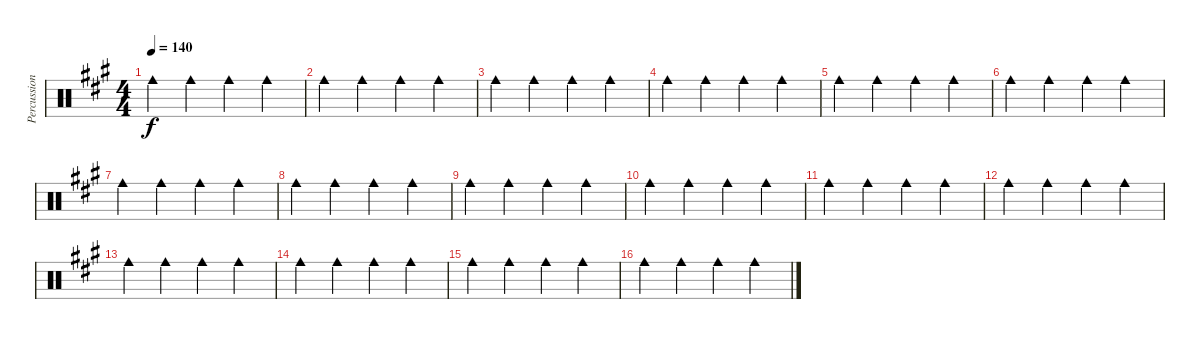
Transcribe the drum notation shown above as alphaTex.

\track ("Percussion" "Percussion") {instrument percussion}
\staff {score}
\articulation defaults
\ts (4 4)
\tempo 140
\clef neutral
\ks a "Cowbell medium (hit)".4{dy f} "Cowbell medium (hit)".4 "Cowbell medium (hit)".4 "Cowbell medium (hit)".4
|
"Cowbell medium (hit)".4 "Cowbell medium (hit)".4 "Cowbell medium (hit)".4 "Cowbell medium (hit)".4 |
"Cowbell medium (hit)".4 "Cowbell medium (hit)".4 "Cowbell medium (hit)".4 "Cowbell medium (hit)".4 |
"Cowbell medium (hit)".4 "Cowbell medium (hit)".4 "Cowbell medium (hit)".4 "Cowbell medium (hit)".4 |
"Cowbell medium (hit)".4 "Cowbell medium (hit)".4 "Cowbell medium (hit)".4 "Cowbell medium (hit)".4 |
"Cowbell medium (hit)".4 "Cowbell medium (hit)".4 "Cowbell medium (hit)".4 "Cowbell medium (hit)".4 |
"Cowbell medium (hit)".4 "Cowbell medium (hit)".4 "Cowbell medium (hit)".4 "Cowbell medium (hit)".4 |
"Cowbell medium (hit)".4 "Cowbell medium (hit)".4 "Cowbell medium (hit)".4 "Cowbell medium (hit)".4 |
"Cowbell medium (hit)".4 "Cowbell medium (hit)".4 "Cowbell medium (hit)".4 "Cowbell medium (hit)".4 |
"Cowbell medium (hit)".4 "Cowbell medium (hit)".4 "Cowbell medium (hit)".4 "Cowbell medium (hit)".4 |
"Cowbell medium (hit)".4 "Cowbell medium (hit)".4 "Cowbell medium (hit)".4 "Cowbell medium (hit)".4 |
"Cowbell medium (hit)".4 "Cowbell medium (hit)".4 "Cowbell medium (hit)".4 "Cowbell medium (hit)".4 |
"Cowbell medium (hit)".4 "Cowbell medium (hit)".4 "Cowbell medium (hit)".4 "Cowbell medium (hit)".4 |
"Cowbell medium (hit)".4 "Cowbell medium (hit)".4 "Cowbell medium (hit)".4 "Cowbell medium (hit)".4 |
"Cowbell medium (hit)".4 "Cowbell medium (hit)".4 "Cowbell medium (hit)".4 "Cowbell medium (hit)".4 |
"Cowbell medium (hit)".4 "Cowbell medium (hit)".4 "Cowbell medium (hit)".4 "Cowbell medium (hit)".4
